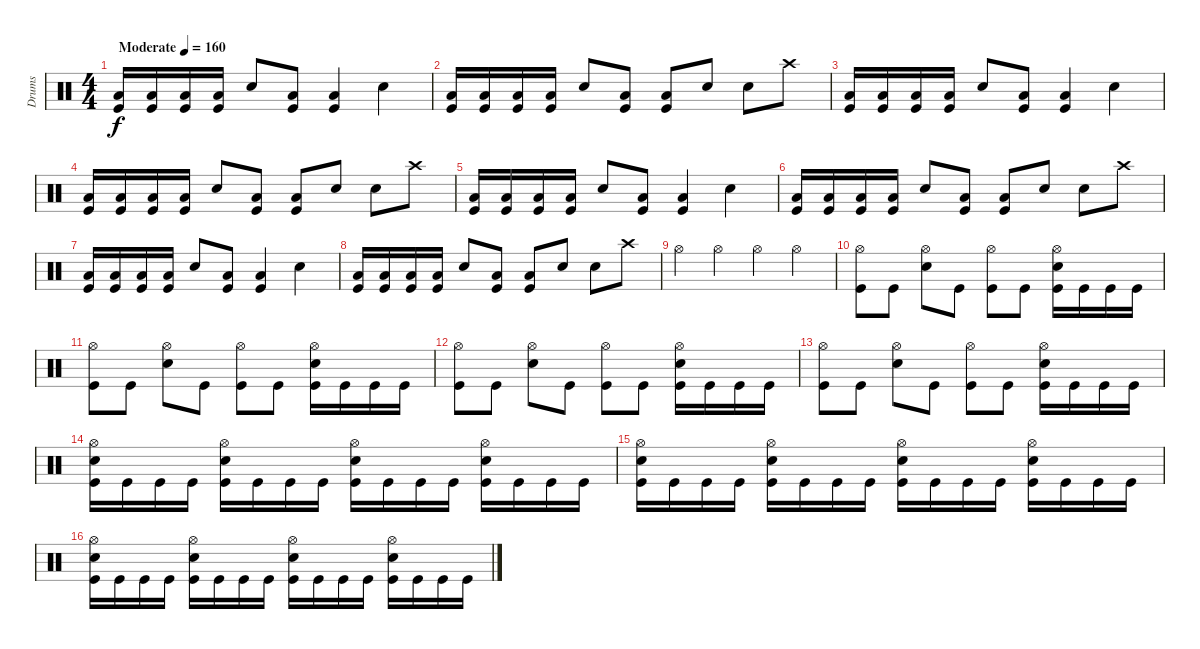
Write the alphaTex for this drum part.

\track ("Drums" "Drums") {instrument percussion}
\staff {score}
\articulation defaults
\ts (4 4)
\tempo (160 "Moderate")
\clef neutral
\ks c
("Low Floor Tom (hit)" "Kick (hit)").16{dy f} ("Low Floor Tom (hit)" "Kick (hit)").16 ("Low Floor Tom (hit)" "Kick (hit)").16 ("Low Floor Tom (hit)" "Kick (hit)").16 "Snare (hit) 2".8 ("Low Floor Tom (hit)" "Kick (hit)").8 ("Low Floor Tom (hit)" "Kick (hit)").4 "Snare (hit) 2".4 |
("Low Floor Tom (hit)" "Kick (hit)").16 ("Low Floor Tom (hit)" "Kick (hit)").16 ("Low Floor Tom (hit)" "Kick (hit)").16 ("Low Floor Tom (hit)" "Kick (hit)").16 "Snare (hit) 2".8 ("Low Floor Tom (hit)" "Kick (hit)").8 ("Low Floor Tom (hit)" "Kick (hit)").8 "Snare (hit) 2".8 "Snare (hit) 2".8 "Crash high (hit)".8 |
("Low Floor Tom (hit)" "Kick (hit)").16 ("Low Floor Tom (hit)" "Kick (hit)").16 ("Low Floor Tom (hit)" "Kick (hit)").16 ("Low Floor Tom (hit)" "Kick (hit)").16 "Snare (hit) 2".8 ("Low Floor Tom (hit)" "Kick (hit)").8 ("Low Floor Tom (hit)" "Kick (hit)").4 "Snare (hit) 2".4 |
("Low Floor Tom (hit)" "Kick (hit)").16 ("Low Floor Tom (hit)" "Kick (hit)").16 ("Low Floor Tom (hit)" "Kick (hit)").16 ("Low Floor Tom (hit)" "Kick (hit)").16 "Snare (hit) 2".8 ("Low Floor Tom (hit)" "Kick (hit)").8 ("Low Floor Tom (hit)" "Kick (hit)").8 "Snare (hit) 2".8 "Snare (hit) 2".8 "Crash high (hit)".8 |
("Low Floor Tom (hit)" "Kick (hit)").16 ("Low Floor Tom (hit)" "Kick (hit)").16 ("Low Floor Tom (hit)" "Kick (hit)").16 ("Low Floor Tom (hit)" "Kick (hit)").16 "Snare (hit) 2".8 ("Low Floor Tom (hit)" "Kick (hit)").8 ("Low Floor Tom (hit)" "Kick (hit)").4 "Snare (hit) 2".4 |
("Low Floor Tom (hit)" "Kick (hit)").16 ("Low Floor Tom (hit)" "Kick (hit)").16 ("Low Floor Tom (hit)" "Kick (hit)").16 ("Low Floor Tom (hit)" "Kick (hit)").16 "Snare (hit) 2".8 ("Low Floor Tom (hit)" "Kick (hit)").8 ("Low Floor Tom (hit)" "Kick (hit)").8 "Snare (hit) 2".8 "Snare (hit) 2".8 "Crash high (hit)".8 |
("Low Floor Tom (hit)" "Kick (hit)").16 ("Low Floor Tom (hit)" "Kick (hit)").16 ("Low Floor Tom (hit)" "Kick (hit)").16 ("Low Floor Tom (hit)" "Kick (hit)").16 "Snare (hit) 2".8 ("Low Floor Tom (hit)" "Kick (hit)").8 ("Low Floor Tom (hit)" "Kick (hit)").4 "Snare (hit) 2".4 |
("Low Floor Tom (hit)" "Kick (hit)").16 ("Low Floor Tom (hit)" "Kick (hit)").16 ("Low Floor Tom (hit)" "Kick (hit)").16 ("Low Floor Tom (hit)" "Kick (hit)").16 "Snare (hit) 2".8 ("Low Floor Tom (hit)" "Kick (hit)").8 ("Low Floor Tom (hit)" "Kick (hit)").8 "Snare (hit) 2".8 "Snare (hit) 2".8 "Crash high (hit)".8 |
"Hi-Hat (open)".4 "Hi-Hat (open)".4 "Hi-Hat (open)".4 "Hi-Hat (open)".4 |
("Hi-Hat (open)" "Kick (hit)").8 "Kick (hit)".8 ("Hi-Hat (open)" "Snare (hit) 2").8 "Kick (hit)".8 ("Hi-Hat (open)" "Kick (hit)").8 "Kick (hit)".8 ("Hi-Hat (open)" "Snare (hit) 2" "Kick (hit)").16 "Kick (hit)".16 "Kick (hit)".16 "Kick (hit)".16 |
("Hi-Hat (open)" "Kick (hit)").8 "Kick (hit)".8 ("Hi-Hat (open)" "Snare (hit) 2").8 "Kick (hit)".8 ("Hi-Hat (open)" "Kick (hit)").8 "Kick (hit)".8 ("Hi-Hat (open)" "Snare (hit) 2" "Kick (hit)").16 "Kick (hit)".16 "Kick (hit)".16 "Kick (hit)".16 |
("Hi-Hat (open)" "Kick (hit)").8 "Kick (hit)".8 ("Hi-Hat (open)" "Snare (hit) 2").8 "Kick (hit)".8 ("Hi-Hat (open)" "Kick (hit)").8 "Kick (hit)".8 ("Hi-Hat (open)" "Snare (hit) 2" "Kick (hit)").16 "Kick (hit)".16 "Kick (hit)".16 "Kick (hit)".16 |
("Hi-Hat (open)" "Kick (hit)").8 "Kick (hit)".8 ("Hi-Hat (open)" "Snare (hit) 2").8 "Kick (hit)".8 ("Hi-Hat (open)" "Kick (hit)").8 "Kick (hit)".8 ("Hi-Hat (open)" "Snare (hit) 2" "Kick (hit)").16 "Kick (hit)".16 "Kick (hit)".16 "Kick (hit)".16 |
("Hi-Hat (open)" "Snare (hit) 2" "Kick (hit)").16 "Kick (hit)".16 "Kick (hit)".16 "Kick (hit)".16 ("Hi-Hat (open)" "Snare (hit) 2" "Kick (hit)").16 "Kick (hit)".16 "Kick (hit)".16 "Kick (hit)".16 ("Hi-Hat (open)" "Snare (hit) 2" "Kick (hit)").16 "Kick (hit)".16 "Kick (hit)".16 "Kick (hit)".16 ("Hi-Hat (open)" "Snare (hit) 2" "Kick (hit)").16 "Kick (hit)".16 "Kick (hit)".16 "Kick (hit)".16 |
("Hi-Hat (open)" "Snare (hit) 2" "Kick (hit)").16 "Kick (hit)".16 "Kick (hit)".16 "Kick (hit)".16 ("Hi-Hat (open)" "Snare (hit) 2" "Kick (hit)").16 "Kick (hit)".16 "Kick (hit)".16 "Kick (hit)".16 ("Hi-Hat (open)" "Snare (hit) 2" "Kick (hit)").16 "Kick (hit)".16 "Kick (hit)".16 "Kick (hit)".16 ("Hi-Hat (open)" "Snare (hit) 2" "Kick (hit)").16 "Kick (hit)".16 "Kick (hit)".16 "Kick (hit)".16 |
("Hi-Hat (open)" "Snare (hit) 2" "Kick (hit)").16 "Kick (hit)".16 "Kick (hit)".16 "Kick (hit)".16 ("Hi-Hat (open)" "Snare (hit) 2" "Kick (hit)").16 "Kick (hit)".16 "Kick (hit)".16 "Kick (hit)".16 ("Hi-Hat (open)" "Snare (hit) 2" "Kick (hit)").16 "Kick (hit)".16 "Kick (hit)".16 "Kick (hit)".16 ("Hi-Hat (open)" "Snare (hit) 2" "Kick (hit)").16 "Kick (hit)".16 "Kick (hit)".16 "Kick (hit)".16
